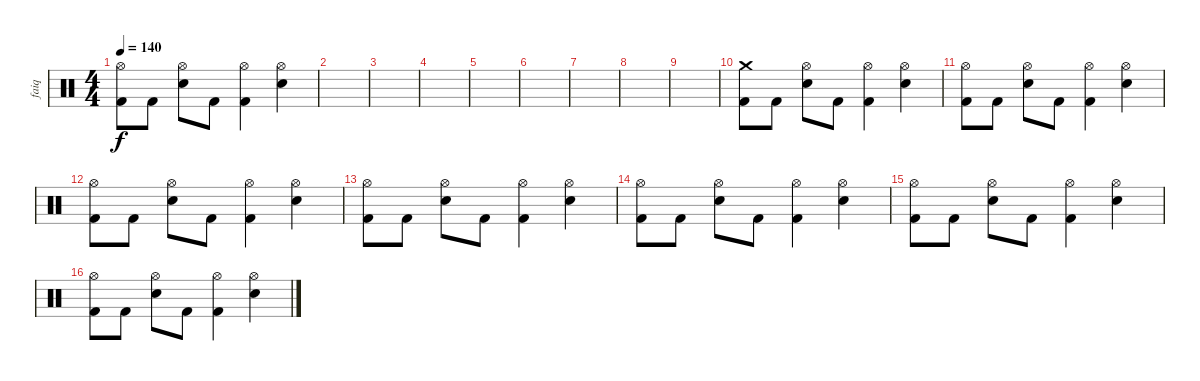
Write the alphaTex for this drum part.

\track ("faiq" "faiq") {instrument percussion}
\staff {score}
\articulation defaults
\ts (4 4)
\tempo 140
\clef neutral
\ks c
("Hi-Hat (open)" "Kick (hit) 2").8{dy f} "Kick (hit) 2".8 ("Hi-Hat (open)" "Electric Snare (hit)").8 "Kick (hit) 2".8 ("Hi-Hat (open)" "Kick (hit) 2").4 ("Hi-Hat (open)" "Electric Snare (hit)").4 |
|
|
|
|
|
|
|
|
("Crash medium (hit)" "Kick (hit) 2").8 "Kick (hit) 2".8 ("Hi-Hat (open)" "Electric Snare (hit)").8 "Kick (hit) 2".8 ("Hi-Hat (open)" "Kick (hit) 2").4 ("Hi-Hat (open)" "Electric Snare (hit)").4 |
("Hi-Hat (open)" "Kick (hit) 2").8 "Kick (hit) 2".8 ("Hi-Hat (open)" "Electric Snare (hit)").8 "Kick (hit) 2".8 ("Hi-Hat (open)" "Kick (hit) 2").4 ("Hi-Hat (open)" "Electric Snare (hit)").4 |
("Hi-Hat (open)" "Kick (hit) 2").8 "Kick (hit) 2".8 ("Hi-Hat (open)" "Electric Snare (hit)").8 "Kick (hit) 2".8 ("Hi-Hat (open)" "Kick (hit) 2").4 ("Hi-Hat (open)" "Electric Snare (hit)").4 |
("Hi-Hat (open)" "Kick (hit) 2").8 "Kick (hit) 2".8 ("Hi-Hat (open)" "Electric Snare (hit)").8 "Kick (hit) 2".8 ("Hi-Hat (open)" "Kick (hit) 2").4 ("Hi-Hat (open)" "Electric Snare (hit)").4 |
("Hi-Hat (open)" "Kick (hit) 2").8 "Kick (hit) 2".8 ("Hi-Hat (open)" "Electric Snare (hit)").8 "Kick (hit) 2".8 ("Hi-Hat (open)" "Kick (hit) 2").4 ("Hi-Hat (open)" "Electric Snare (hit)").4 |
("Hi-Hat (open)" "Kick (hit) 2").8 "Kick (hit) 2".8 ("Hi-Hat (open)" "Electric Snare (hit)").8 "Kick (hit) 2".8 ("Hi-Hat (open)" "Kick (hit) 2").4 ("Hi-Hat (open)" "Electric Snare (hit)").4 |
("Hi-Hat (open)" "Kick (hit) 2").8 "Kick (hit) 2".8 ("Hi-Hat (open)" "Electric Snare (hit)").8 "Kick (hit) 2".8 ("Hi-Hat (open)" "Kick (hit) 2").4 ("Hi-Hat (open)" "Electric Snare (hit)").4
